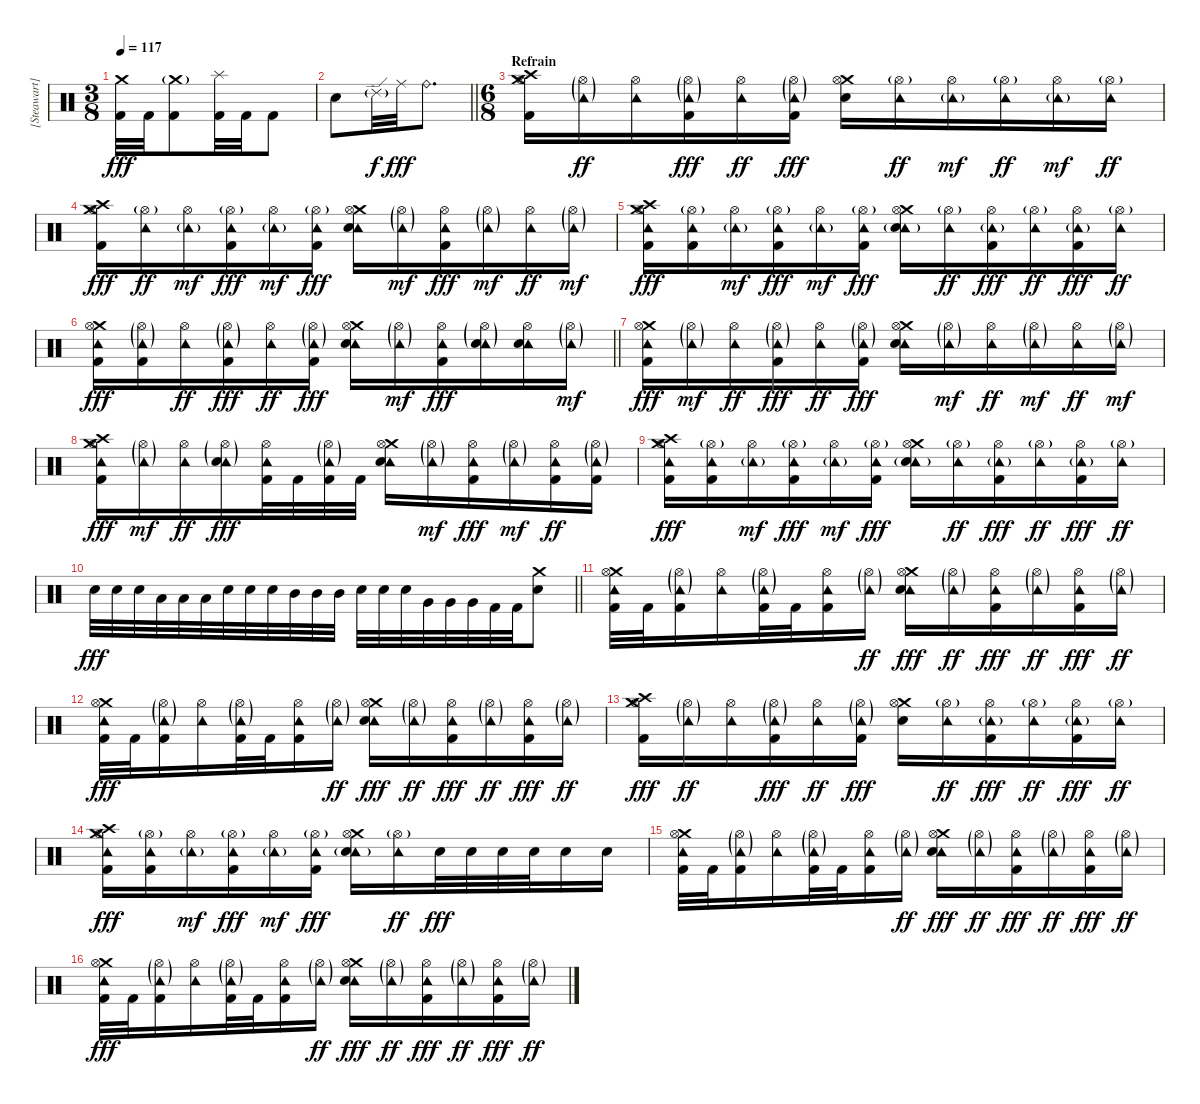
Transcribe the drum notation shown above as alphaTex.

\track ("[Steawart] Drums" "[Steawart]") {instrument percussion}
\staff {score}
\articulation defaults
\ts (3 8)
\tempo 117
\clef neutral
\ks c
("Crash medium (hit)" "Kick (hit) 2").32{dy fff} "Kick (hit) 2".32 ("Crash medium (hit)"{g} "Kick (hit) 2").8 ("Splash (hit)" "Kick (hit) 2").32 "Kick (hit) 2".32 "Kick (hit) 2".8 |
\barLineRight lightlight "Electric Snare (hit)".8 "Ride (edge) 2"{g}.32{dy f} "Ride (middle)".32{dy fff} "Ride (bell)".8{d}
|
\ts (6 8)
\section ("" "Refrain ")
("Crash medium (hit)" "Hi-Hat (open)" "Crash high (hit)" "Kick (hit) 2").16 ("Hi-Hat (open)"{g} "Tambourine (hit)"{g}).16{dy ff} ("Hi-Hat (open)" "Tambourine (hit)").16 ("Hi-Hat (open)"{g} "Tambourine (hit)"{g} "Kick (hit) 2").16{dy fff} ("Hi-Hat (open)" "Tambourine (hit)").16{dy ff} ("Hi-Hat (open)"{g} "Tambourine (hit)"{g} "Kick (hit) 2").16{dy fff} ("Crash medium (hit)" "Hi-Hat (open)" "Electric Snare (hit)").16 ("Hi-Hat (open)"{g} "Tambourine (hit)").16{dy ff} ("Hi-Hat (open)" "Tambourine (hit)"{g}).16{dy mf} ("Hi-Hat (open)"{g} "Tambourine (hit)").16{dy ff} ("Hi-Hat (open)" "Tambourine (hit)"{g}).16{dy mf} ("Hi-Hat (open)"{g} "Tambourine (hit)").16{dy ff} |
("Crash medium (hit)" "Hi-Hat (open)" "Crash high (hit)" "Kick (hit) 2").16{dy fff} ("Hi-Hat (open)"{g} "Tambourine (hit)").16{dy ff} ("Hi-Hat (open)" "Tambourine (hit)"{g}).16{dy mf} ("Hi-Hat (open)"{g} "Tambourine (hit)" "Kick (hit) 2").16{dy fff} ("Hi-Hat (open)" "Tambourine (hit)"{g}).16{dy mf} ("Hi-Hat (open)"{g} "Tambourine (hit)" "Kick (hit) 2").16{dy fff} ("Crash medium (hit)" "Hi-Hat (open)" "Tambourine (hit)" "Electric Snare (hit)").16 ("Hi-Hat (open)"{g} "Tambourine (hit)"{g}).16{dy mf} ("Hi-Hat (open)" "Tambourine (hit)" "Kick (hit) 2").16{dy fff} ("Hi-Hat (open)"{g} "Tambourine (hit)"{g}).16{dy mf} ("Hi-Hat (open)" "Tambourine (hit)").16{dy ff} ("Hi-Hat (open)"{g} "Tambourine (hit)"{g}).16{dy mf} |
("Crash medium (hit)" "Hi-Hat (open)" "Crash high (hit)" "Tambourine (hit)" "Kick (hit) 2").16{dy fff} ("Hi-Hat (open)"{g} "Tambourine (hit)" "Kick (hit) 2").16 ("Hi-Hat (open)" "Tambourine (hit)"{g}).16{dy mf} ("Hi-Hat (open)"{g} "Tambourine (hit)" "Kick (hit) 2").16{dy fff} ("Hi-Hat (open)" "Tambourine (hit)"{g}).16{dy mf} ("Hi-Hat (open)"{g} "Tambourine (hit)" "Kick (hit) 2").16{dy fff} ("Crash medium (hit)" "Hi-Hat (open)" "Tambourine (hit)"{g} "Electric Snare (hit)").16 ("Hi-Hat (open)"{g} "Tambourine (hit)").16{dy ff} ("Hi-Hat (open)" "Tambourine (hit)"{g} "Kick (hit) 2").16{dy fff} ("Hi-Hat (open)"{g} "Tambourine (hit)").16{dy ff} ("Hi-Hat (open)" "Tambourine (hit)"{g} "Kick (hit) 2").16{dy fff} ("Hi-Hat (open)"{g} "Tambourine (hit)").16{dy ff} |
\barLineRight lightlight
("Crash medium (hit)" "Hi-Hat (open)" "Tambourine (hit)" "Kick (hit) 2").16{dy fff} ("Hi-Hat (open)"{g} "Tambourine (hit)"{g} "Kick (hit) 2").16 ("Hi-Hat (open)" "Tambourine (hit)").16{dy ff} ("Hi-Hat (open)"{g} "Tambourine (hit)"{g} "Kick (hit) 2").16{dy fff} ("Hi-Hat (open)" "Tambourine (hit)").16{dy ff} ("Hi-Hat (open)"{g} "Tambourine (hit)"{g} "Kick (hit) 2").16{dy fff} ("Crash medium (hit)" "Hi-Hat (open)" "Tambourine (hit)" "Electric Snare (hit)").16 ("Hi-Hat (open)"{g} "Tambourine (hit)"{g}).16{dy mf} ("Hi-Hat (open)" "Tambourine (hit)" "Kick (hit) 2").16{dy fff} ("Hi-Hat (open)"{g} "Tambourine (hit)"{g} "Electric Snare (hit)").16 ("Hi-Hat (open)" "Tambourine (hit)" "Electric Snare (hit)").16 ("Hi-Hat (open)"{g} "Tambourine (hit)"{g}).16{dy mf} |
("Crash medium (hit)" "Hi-Hat (open)" "Tambourine (hit)" "Kick (hit) 2").16{dy fff} ("Hi-Hat (open)"{g} "Tambourine (hit)"{g}).16{dy mf} ("Hi-Hat (open)" "Tambourine (hit)").16{dy ff} ("Hi-Hat (open)"{g} "Tambourine (hit)"{g} "Kick (hit) 2").16{dy fff} ("Hi-Hat (open)" "Tambourine (hit)").16{dy ff} ("Hi-Hat (open)"{g} "Tambourine (hit)"{g} "Kick (hit) 2").16{dy fff} ("Crash medium (hit)" "Hi-Hat (open)" "Tambourine (hit)" "Electric Snare (hit)").16 ("Hi-Hat (open)"{g} "Tambourine (hit)"{g}).16{dy mf} ("Hi-Hat (open)" "Tambourine (hit)").16{dy ff} ("Hi-Hat (open)"{g} "Tambourine (hit)"{g}).16{dy mf} ("Hi-Hat (open)" "Tambourine (hit)").16{dy ff} ("Hi-Hat (open)"{g} "Tambourine (hit)"{g}).16{dy mf} |
("Crash medium (hit)" "Hi-Hat (open)" "Crash high (hit)" "Tambourine (hit)" "Kick (hit) 2").16{dy fff} ("Hi-Hat (open)"{g} "Tambourine (hit)"{g}).16{dy mf} ("Hi-Hat (open)" "Tambourine (hit)").16{dy ff} ("Hi-Hat (open)"{g} "Tambourine (hit)"{g} "Electric Snare (hit)").16{dy fff} ("Hi-Hat (open)" "Tambourine (hit)" "Kick (hit) 2").32 "Kick (hit) 2".32 ("Hi-Hat (open)"{g} "Tambourine (hit)"{g} "Kick (hit) 2").32 "Kick (hit) 2".32 ("Crash medium (hit)" "Hi-Hat (open)" "Tambourine (hit)" "Electric Snare (hit)").16 ("Hi-Hat (open)"{g} "Tambourine (hit)"{g}).16{dy mf} ("Hi-Hat (open)" "Tambourine (hit)" "Kick (hit) 2").16{dy fff} ("Hi-Hat (open)"{g} "Tambourine (hit)"{g}).16{dy mf} ("Hi-Hat (open)" "Tambourine (hit)" "Kick (hit) 2").16{dy ff} ("Hi-Hat (open)"{g} "Tambourine (hit)"{g} "Kick (hit) 2").16 |
("Crash medium (hit)" "Hi-Hat (open)" "Crash high (hit)" "Tambourine (hit)" "Kick (hit) 2").16{dy fff} ("Hi-Hat (open)"{g} "Tambourine (hit)" "Kick (hit) 2").16 ("Hi-Hat (open)" "Tambourine (hit)"{g}).16{dy mf} ("Hi-Hat (open)"{g} "Tambourine (hit)" "Kick (hit) 2").16{dy fff} ("Hi-Hat (open)" "Tambourine (hit)"{g}).16{dy mf} ("Hi-Hat (open)"{g} "Tambourine (hit)" "Kick (hit) 2").16{dy fff} ("Crash medium (hit)" "Hi-Hat (open)" "Tambourine (hit)"{g} "Electric Snare (hit)").16 ("Hi-Hat (open)"{g} "Tambourine (hit)").16{dy ff} ("Hi-Hat (open)" "Tambourine (hit)"{g} "Kick (hit) 2").16{dy fff} ("Hi-Hat (open)"{g} "Tambourine (hit)").16{dy ff} ("Hi-Hat (open)" "Tambourine (hit)"{g} "Kick (hit) 2").16{dy fff} ("Hi-Hat (open)"{g} "Tambourine (hit)").16{dy ff} |
\barLineRight lightlight "Electric Snare (hit)".32{dy fff} "Electric Snare (hit)".32 "Electric Snare (hit)".32 "Low Tom (hit)".32 "Low Tom (hit)".32 "Low Tom (hit)".32 "Electric Snare (hit)".32 "Electric Snare (hit)".32 "Electric Snare (hit)".32 "Mid Tom (hit)".32 "Mid Tom (hit)".32 "Mid Tom (hit)".32 "Electric Snare (hit)".32 "Electric Snare (hit)".32 "Electric Snare (hit)".32 "Very Low Tom (hit)".32 "Very Low Tom (hit)".32 "Very Low Tom (hit)".32 "Kick (hit) 2".32 "Kick (hit) 2".32
("Crash medium (hit)" "Electric Snare (hit)").8 |
("Crash medium (hit)" "Hi-Hat (open)" "Tambourine (hit)" "Kick (hit) 2").32 "Kick (hit) 2".32 ("Hi-Hat (open)"{g} "Tambourine (hit)"{g} "Kick (hit) 2").16 ("Hi-Hat (open)" "Tambourine (hit)").16 ("Hi-Hat (open)"{g} "Tambourine (hit)"{g} "Kick (hit) 2").32 "Kick (hit) 2".32 ("Hi-Hat (open)" "Tambourine (hit)" "Kick (hit) 2").16 ("Hi-Hat (open)"{g} "Tambourine (hit)"{g}).16{dy ff} ("Crash medium (hit)" "Hi-Hat (open)" "Tambourine (hit)" "Electric Snare (hit)").16{dy fff} ("Hi-Hat (open)"{g} "Tambourine (hit)"{g}).16{dy ff} ("Hi-Hat (open)" "Tambourine (hit)" "Kick (hit) 2").16{dy fff} ("Hi-Hat (open)"{g} "Tambourine (hit)"{g}).16{dy ff} ("Hi-Hat (open)" "Tambourine (hit)" "Kick (hit) 2").16{dy fff} ("Hi-Hat (open)"{g} "Tambourine (hit)"{g}).16{dy ff} |
("Crash medium (hit)" "Hi-Hat (open)" "Tambourine (hit)" "Kick (hit) 2").32{dy fff} "Kick (hit) 2".32 ("Hi-Hat (open)"{g} "Tambourine (hit)"{g} "Kick (hit) 2").16 ("Hi-Hat (open)" "Tambourine (hit)").16 ("Hi-Hat (open)"{g} "Tambourine (hit)"{g} "Kick (hit) 2").32 "Kick (hit) 2".32 ("Hi-Hat (open)" "Tambourine (hit)" "Kick (hit) 2").16 ("Hi-Hat (open)"{g} "Tambourine (hit)"{g}).16{dy ff} ("Crash medium (hit)" "Hi-Hat (open)" "Tambourine (hit)" "Electric Snare (hit)").16{dy fff} ("Hi-Hat (open)"{g} "Tambourine (hit)"{g}).16{dy ff} ("Hi-Hat (open)" "Tambourine (hit)" "Kick (hit) 2").16{dy fff} ("Hi-Hat (open)"{g} "Tambourine (hit)"{g}).16{dy ff} ("Hi-Hat (open)" "Tambourine (hit)" "Kick (hit) 2").16{dy fff} ("Hi-Hat (open)"{g} "Tambourine (hit)"{g}).16{dy ff} |
("Crash medium (hit)" "Hi-Hat (open)" "Crash high (hit)" "Kick (hit) 2").16{dy fff} ("Hi-Hat (open)"{g} "Tambourine (hit)"{g}).16{dy ff} ("Hi-Hat (open)" "Tambourine (hit)").16 ("Hi-Hat (open)"{g} "Tambourine (hit)"{g} "Kick (hit) 2").16{dy fff} ("Hi-Hat (open)" "Tambourine (hit)").16{dy ff} ("Hi-Hat (open)"{g} "Tambourine (hit)"{g} "Kick (hit) 2").16{dy fff} ("Crash medium (hit)" "Hi-Hat (open)" "Electric Snare (hit)").16 ("Hi-Hat (open)"{g} "Tambourine (hit)").16{dy ff} ("Hi-Hat (open)" "Tambourine (hit)"{g} "Kick (hit) 2").16{dy fff} ("Hi-Hat (open)"{g} "Tambourine (hit)").16{dy ff} ("Hi-Hat (open)" "Tambourine (hit)"{g} "Kick (hit) 2").16{dy fff} ("Hi-Hat (open)"{g} "Tambourine (hit)").16{dy ff} |
("Crash medium (hit)" "Hi-Hat (open)" "Crash high (hit)" "Tambourine (hit)" "Kick (hit) 2").16{dy fff} ("Hi-Hat (open)"{g} "Tambourine (hit)" "Kick (hit) 2").16 ("Hi-Hat (open)" "Tambourine (hit)"{g}).16{dy mf} ("Hi-Hat (open)"{g} "Tambourine (hit)" "Kick (hit) 2").16{dy fff} ("Hi-Hat (open)" "Tambourine (hit)"{g}).16{dy mf} ("Hi-Hat (open)"{g} "Tambourine (hit)" "Kick (hit) 2").16{dy fff} ("Crash medium (hit)" "Hi-Hat (open)" "Tambourine (hit)"{g} "Electric Snare (hit)").16 ("Hi-Hat (open)"{g} "Tambourine (hit)").16{dy ff} "Electric Snare (hit)".32{dy fff} "Electric Snare (hit)".32 "Electric Snare (hit)".32 "Electric Snare (hit)".32 "Electric Snare (hit)".16 "Electric Snare (hit)".16 |
("Crash medium (hit)" "Hi-Hat (open)" "Tambourine (hit)" "Kick (hit) 2").32 "Kick (hit) 2".32 ("Hi-Hat (open)"{g} "Tambourine (hit)"{g} "Kick (hit) 2").16 ("Hi-Hat (open)" "Tambourine (hit)").16 ("Hi-Hat (open)"{g} "Tambourine (hit)"{g} "Kick (hit) 2").32 "Kick (hit) 2".32 ("Hi-Hat (open)" "Tambourine (hit)" "Kick (hit) 2").16 ("Hi-Hat (open)"{g} "Tambourine (hit)"{g}).16{dy ff} ("Crash medium (hit)" "Hi-Hat (open)" "Tambourine (hit)" "Electric Snare (hit)").16{dy fff} ("Hi-Hat (open)"{g} "Tambourine (hit)"{g}).16{dy ff} ("Hi-Hat (open)" "Tambourine (hit)" "Kick (hit) 2").16{dy fff} ("Hi-Hat (open)"{g} "Tambourine (hit)"{g}).16{dy ff} ("Hi-Hat (open)" "Tambourine (hit)" "Kick (hit) 2").16{dy fff} ("Hi-Hat (open)"{g} "Tambourine (hit)"{g}).16{dy ff} |
("Crash medium (hit)" "Hi-Hat (open)" "Tambourine (hit)" "Kick (hit) 2").32{dy fff} "Kick (hit) 2".32 ("Hi-Hat (open)"{g} "Tambourine (hit)"{g} "Kick (hit) 2").16 ("Hi-Hat (open)" "Tambourine (hit)").16 ("Hi-Hat (open)"{g} "Tambourine (hit)"{g} "Kick (hit) 2").32 "Kick (hit) 2".32 ("Hi-Hat (open)" "Tambourine (hit)" "Kick (hit) 2").16 ("Hi-Hat (open)"{g} "Tambourine (hit)"{g}).16{dy ff} ("Crash medium (hit)" "Hi-Hat (open)" "Tambourine (hit)" "Electric Snare (hit)").16{dy fff} ("Hi-Hat (open)"{g} "Tambourine (hit)"{g}).16{dy ff} ("Hi-Hat (open)" "Tambourine (hit)" "Kick (hit) 2").16{dy fff} ("Hi-Hat (open)"{g} "Tambourine (hit)"{g}).16{dy ff} ("Hi-Hat (open)" "Tambourine (hit)" "Kick (hit) 2").16{dy fff} ("Hi-Hat (open)"{g} "Tambourine (hit)"{g}).16{dy ff}
